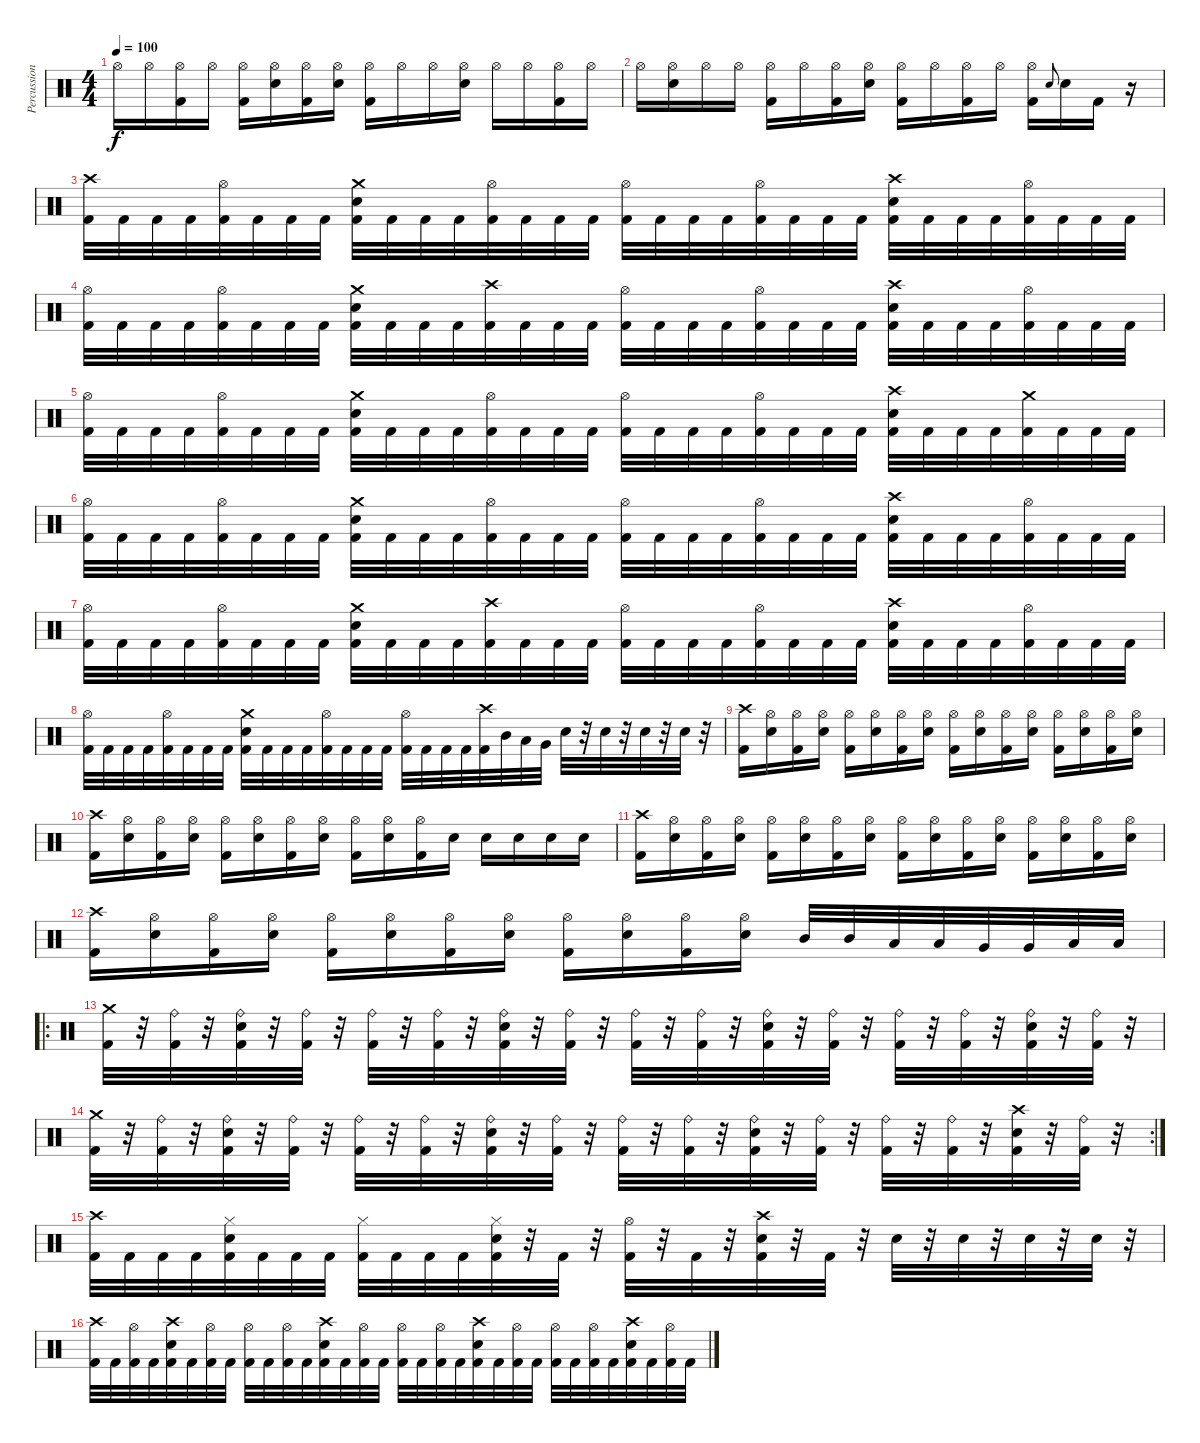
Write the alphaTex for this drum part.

\track ("Percussion" "Percussion") {instrument percussion}
\staff {score}
\articulation defaults
\ts (4 4)
\tempo 100
\clef neutral
\ks c "Hi-Hat (open)".16{dy f} "Hi-Hat (open)".16
("Hi-Hat (open)" "Kick (hit) 2").16 "Hi-Hat (open)".16 ("Hi-Hat (open)" "Kick (hit) 2").16 ("Hi-Hat (open)" "Snare (hit) 2").16 ("Hi-Hat (open)" "Kick (hit) 2").16 ("Hi-Hat (open)" "Snare (hit) 2").16 ("Hi-Hat (open)" "Kick (hit) 2").16 "Hi-Hat (open)".16 "Hi-Hat (open)".16 ("Hi-Hat (open)" "Snare (hit) 2").16 "Hi-Hat (open)".16 "Hi-Hat (open)".16 ("Hi-Hat (open)" "Kick (hit) 2").16 "Hi-Hat (open)".16 |
"Hi-Hat (open)".16 ("Hi-Hat (open)" "Snare (hit) 2").16 "Hi-Hat (open)".16 "Hi-Hat (open)".16 ("Hi-Hat (open)" "Kick (hit) 2").16 "Hi-Hat (open)".16 ("Hi-Hat (open)" "Kick (hit) 2").16 ("Hi-Hat (open)" "Snare (hit) 2").16 ("Hi-Hat (open)" "Kick (hit) 2").16 "Hi-Hat (open)".16 ("Hi-Hat (open)" "Kick (hit) 2").16 "Hi-Hat (open)".16 ("Hi-Hat (open)" "Kick (hit) 2").16 "Snare (hit) 2".8{gr onbeat} "Snare (hit) 2".16 "Kick (hit) 2".16 r.16 |
("Crash high (hit)" "Kick (hit) 2").32 "Kick (hit) 2".32 "Kick (hit) 2".32 "Kick (hit) 2".32 ("Hi-Hat (open)" "Kick (hit) 2").32 "Kick (hit) 2".32 "Kick (hit) 2".32 "Kick (hit) 2".32 ("Crash medium (hit)" "Snare (hit) 2" "Kick (hit) 2").32 "Kick (hit) 2".32 "Kick (hit) 2".32 "Kick (hit) 2".32 ("Hi-Hat (open)" "Kick (hit) 2").32 "Kick (hit) 2".32 "Kick (hit) 2".32 "Kick (hit) 2".32 ("Hi-Hat (open)" "Kick (hit) 2").32 "Kick (hit) 2".32 "Kick (hit) 2".32 "Kick (hit) 2".32 ("Hi-Hat (open)" "Kick (hit) 2").32 "Kick (hit) 2".32 "Kick (hit) 2".32 "Kick (hit) 2".32 ("Crash high (hit)" "Snare (hit) 2" "Kick (hit) 2").32 "Kick (hit) 2".32 "Kick (hit) 2".32 "Kick (hit) 2".32 ("Hi-Hat (open)" "Kick (hit) 2").32 "Kick (hit) 2".32 "Kick (hit) 2".32 "Kick (hit) 2".32 |
("Hi-Hat (open)" "Kick (hit) 2").32 "Kick (hit) 2".32 "Kick (hit) 2".32 "Kick (hit) 2".32 ("Hi-Hat (open)" "Kick (hit) 2").32 "Kick (hit) 2".32 "Kick (hit) 2".32 "Kick (hit) 2".32 ("Crash medium (hit)" "Snare (hit) 2" "Kick (hit) 2").32 "Kick (hit) 2".32 "Kick (hit) 2".32 "Kick (hit) 2".32 ("Crash high (hit)" "Kick (hit) 2").32 "Kick (hit) 2".32 "Kick (hit) 2".32 "Kick (hit) 2".32 ("Hi-Hat (open)" "Kick (hit) 2").32 "Kick (hit) 2".32 "Kick (hit) 2".32 "Kick (hit) 2".32 ("Hi-Hat (open)" "Kick (hit) 2").32 "Kick (hit) 2".32 "Kick (hit) 2".32 "Kick (hit) 2".32 ("Crash high (hit)" "Snare (hit) 2" "Kick (hit) 2").32 "Kick (hit) 2".32 "Kick (hit) 2".32 "Kick (hit) 2".32 ("Hi-Hat (open)" "Kick (hit) 2").32 "Kick (hit) 2".32 "Kick (hit) 2".32 "Kick (hit) 2".32 |
("Hi-Hat (open)" "Kick (hit) 2").32 "Kick (hit) 2".32 "Kick (hit) 2".32 "Kick (hit) 2".32 ("Hi-Hat (open)" "Kick (hit) 2").32 "Kick (hit) 2".32 "Kick (hit) 2".32 "Kick (hit) 2".32 ("Crash medium (hit)" "Snare (hit) 2" "Kick (hit) 2").32 "Kick (hit) 2".32 "Kick (hit) 2".32 "Kick (hit) 2".32 ("Hi-Hat (open)" "Kick (hit) 2").32 "Kick (hit) 2".32 "Kick (hit) 2".32 "Kick (hit) 2".32 ("Hi-Hat (open)" "Kick (hit) 2").32 "Kick (hit) 2".32 "Kick (hit) 2".32 "Kick (hit) 2".32 ("Hi-Hat (open)" "Kick (hit) 2").32 "Kick (hit) 2".32 "Kick (hit) 2".32 "Kick (hit) 2".32 ("Crash high (hit)" "Snare (hit) 2" "Kick (hit) 2").32 "Kick (hit) 2".32 "Kick (hit) 2".32 "Kick (hit) 2".32 ("Crash medium (hit)" "Kick (hit) 2").32 "Kick (hit) 2".32 "Kick (hit) 2".32 "Kick (hit) 2".32 |
("Hi-Hat (open)" "Kick (hit) 2").32 "Kick (hit) 2".32 "Kick (hit) 2".32 "Kick (hit) 2".32 ("Hi-Hat (open)" "Kick (hit) 2").32 "Kick (hit) 2".32 "Kick (hit) 2".32 "Kick (hit) 2".32 ("Crash medium (hit)" "Snare (hit) 2" "Kick (hit) 2").32 "Kick (hit) 2".32 "Kick (hit) 2".32 "Kick (hit) 2".32 ("Hi-Hat (open)" "Kick (hit) 2").32 "Kick (hit) 2".32 "Kick (hit) 2".32 "Kick (hit) 2".32 ("Hi-Hat (open)" "Kick (hit) 2").32 "Kick (hit) 2".32 "Kick (hit) 2".32 "Kick (hit) 2".32 ("Hi-Hat (open)" "Kick (hit) 2").32 "Kick (hit) 2".32 "Kick (hit) 2".32 "Kick (hit) 2".32 ("Crash high (hit)" "Snare (hit) 2" "Kick (hit) 2").32 "Kick (hit) 2".32 "Kick (hit) 2".32 "Kick (hit) 2".32 ("Hi-Hat (open)" "Kick (hit) 2").32 "Kick (hit) 2".32 "Kick (hit) 2".32 "Kick (hit) 2".32 |
("Hi-Hat (open)" "Kick (hit) 2").32 "Kick (hit) 2".32 "Kick (hit) 2".32 "Kick (hit) 2".32 ("Hi-Hat (open)" "Kick (hit) 2").32 "Kick (hit) 2".32 "Kick (hit) 2".32 "Kick (hit) 2".32 ("Crash medium (hit)" "Snare (hit) 2" "Kick (hit) 2").32 "Kick (hit) 2".32 "Kick (hit) 2".32 "Kick (hit) 2".32 ("Crash high (hit)" "Kick (hit) 2").32 "Kick (hit) 2".32 "Kick (hit) 2".32 "Kick (hit) 2".32 ("Hi-Hat (open)" "Kick (hit) 2").32 "Kick (hit) 2".32 "Kick (hit) 2".32 "Kick (hit) 2".32 ("Hi-Hat (open)" "Kick (hit) 2").32 "Kick (hit) 2".32 "Kick (hit) 2".32 "Kick (hit) 2".32 ("Crash high (hit)" "Snare (hit) 2" "Kick (hit) 2").32 "Kick (hit) 2".32 "Kick (hit) 2".32 "Kick (hit) 2".32 ("Hi-Hat (open)" "Kick (hit) 2").32 "Kick (hit) 2".32 "Kick (hit) 2".32 "Kick (hit) 2".32 |
("Hi-Hat (open)" "Kick (hit) 2").32 "Kick (hit) 2".32 "Kick (hit) 2".32 "Kick (hit) 2".32 ("Hi-Hat (open)" "Kick (hit) 2").32 "Kick (hit) 2".32 "Kick (hit) 2".32 "Kick (hit) 2".32 ("Crash medium (hit)" "Snare (hit) 2" "Kick (hit) 2").32 "Kick (hit) 2".32 "Kick (hit) 2".32 "Kick (hit) 2".32 ("Hi-Hat (open)" "Kick (hit) 2").32 "Kick (hit) 2".32 "Kick (hit) 2".32 "Kick (hit) 2".32 ("Hi-Hat (open)" "Kick (hit) 2").32 "Kick (hit) 2".32 "Kick (hit) 2".32 "Kick (hit) 2".32 ("Crash high (hit)" "Kick (hit) 2").32 "Mid Tom (hit)".32 "Low Tom (hit)".32 "Very Low Tom (hit)".32 "Snare (hit) 2".32 r.32 "Snare (hit) 2".32 r.32 "Snare (hit) 2".32 r.32 "Snare (hit) 2".32 r.32 |
("Crash high (hit)" "Kick (hit) 2").16 ("Hi-Hat (open)" "Snare (hit) 2").16 ("Hi-Hat (open)" "Kick (hit) 2").16 ("Hi-Hat (open)" "Snare (hit) 2").16 ("Hi-Hat (open)" "Kick (hit) 2").16 ("Hi-Hat (open)" "Snare (hit) 2").16 ("Hi-Hat (open)" "Kick (hit) 2").16 ("Hi-Hat (open)" "Snare (hit) 2").16 ("Hi-Hat (open)" "Kick (hit) 2").16 ("Hi-Hat (open)" "Snare (hit) 2").16 ("Hi-Hat (open)" "Kick (hit) 2").16 ("Hi-Hat (open)" "Snare (hit) 2").16 ("Hi-Hat (open)" "Kick (hit) 2").16 ("Hi-Hat (open)" "Snare (hit) 2").16 ("Hi-Hat (open)" "Kick (hit) 2").16 ("Hi-Hat (open)" "Snare (hit) 2").16 |
("Crash high (hit)" "Kick (hit) 2").16 ("Hi-Hat (open)" "Snare (hit) 2").16 ("Hi-Hat (open)" "Kick (hit) 2").16 ("Hi-Hat (open)" "Snare (hit) 2").16 ("Hi-Hat (open)" "Kick (hit) 2").16 ("Hi-Hat (open)" "Snare (hit) 2").16 ("Hi-Hat (open)" "Kick (hit) 2").16 ("Hi-Hat (open)" "Snare (hit) 2").16 ("Hi-Hat (open)" "Kick (hit) 2").16 ("Hi-Hat (open)" "Snare (hit) 2").16 ("Hi-Hat (open)" "Kick (hit) 2").16 "Snare (hit) 2".16 "Snare (hit) 2".16 "Snare (hit) 2".16 "Snare (hit) 2".16 "Snare (hit) 2".16 |
("Crash high (hit)" "Kick (hit) 2").16 ("Hi-Hat (open)" "Snare (hit) 2").16 ("Hi-Hat (open)" "Kick (hit) 2").16 ("Hi-Hat (open)" "Snare (hit) 2").16 ("Hi-Hat (open)" "Kick (hit) 2").16 ("Hi-Hat (open)" "Snare (hit) 2").16 ("Hi-Hat (open)" "Kick (hit) 2").16 ("Hi-Hat (open)" "Snare (hit) 2").16 ("Hi-Hat (open)" "Kick (hit) 2").16 ("Hi-Hat (open)" "Snare (hit) 2").16 ("Hi-Hat (open)" "Kick (hit) 2").16 ("Hi-Hat (open)" "Snare (hit) 2").16 ("Hi-Hat (open)" "Kick (hit) 2").16 ("Hi-Hat (open)" "Snare (hit) 2").16 ("Hi-Hat (open)" "Kick (hit) 2").16 ("Hi-Hat (open)" "Snare (hit) 2").16 |
("Crash high (hit)" "Kick (hit) 2").16 ("Hi-Hat (open)" "Snare (hit) 2").16 ("Hi-Hat (open)" "Kick (hit) 2").16 ("Hi-Hat (open)" "Snare (hit) 2").16 ("Hi-Hat (open)" "Kick (hit) 2").16 ("Hi-Hat (open)" "Snare (hit) 2").16 ("Hi-Hat (open)" "Kick (hit) 2").16 ("Hi-Hat (open)" "Snare (hit) 2").16 ("Hi-Hat (open)" "Kick (hit) 2").16 ("Hi-Hat (open)" "Snare (hit) 2").16 ("Hi-Hat (open)" "Kick (hit) 2").16 ("Hi-Hat (open)" "Snare (hit) 2").16 "Mid Tom (hit)".32 "Mid Tom (hit)".32 "Low Tom (hit)".32 "Low Tom (hit)".32 "Very Low Tom (hit)".32 "Very Low Tom (hit)".32 "Low Floor Tom (hit)".32 "Low Floor Tom (hit)".32 |
\ro
("Crash medium (hit)" "Kick (hit) 2").32 r.32 ("Ride (bell)" "Kick (hit) 2").32 r.32 ("Ride (bell)" "Snare (hit) 2" "Kick (hit) 2").32 r.32 ("Ride (bell)" "Kick (hit) 2").32 r.32 ("Ride (bell)" "Kick (hit) 2").32 r.32 ("Ride (bell)" "Kick (hit) 2").32 r.32 ("Ride (bell)" "Snare (hit) 2" "Kick (hit) 2").32 r.32 ("Ride (bell)" "Kick (hit) 2").32 r.32 ("Ride (bell)" "Kick (hit) 2").32 r.32 ("Ride (bell)" "Kick (hit) 2").32 r.32 ("Ride (bell)" "Snare (hit) 2" "Kick (hit) 2").32 r.32 ("Ride (bell)" "Kick (hit) 2").32 r.32 ("Ride (bell)" "Kick (hit) 2").32 r.32 ("Ride (bell)" "Kick (hit) 2").32 r.32 ("Ride (bell)" "Snare (hit) 2" "Kick (hit) 2").32 r.32 ("Ride (bell)" "Kick (hit) 2").32 r.32 |
\rc 2
("Crash medium (hit)" "Kick (hit) 2").32 r.32 ("Ride (bell)" "Kick (hit) 2").32 r.32 ("Ride (bell)" "Snare (hit) 2" "Kick (hit) 2").32 r.32 ("Ride (bell)" "Kick (hit) 2").32 r.32 ("Ride (bell)" "Kick (hit) 2").32 r.32 ("Ride (bell)" "Kick (hit) 2").32 r.32 ("Ride (bell)" "Snare (hit) 2" "Kick (hit) 2").32 r.32 ("Ride (bell)" "Kick (hit) 2").32 r.32 ("Ride (bell)" "Kick (hit) 2").32 r.32 ("Ride (bell)" "Kick (hit) 2").32 r.32 ("Ride (bell)" "Snare (hit) 2" "Kick (hit) 2").32 r.32 ("Ride (bell)" "Kick (hit) 2").32 r.32 ("Ride (bell)" "Kick (hit) 2").32 r.32 ("Ride (bell)" "Kick (hit) 2").32 r.32 ("Crash high (hit)" "Snare (hit) 2" "Kick (hit) 2").32 r.32 ("Ride (bell)" "Kick (hit) 2").32 r.32 |
("Crash high (hit)" "Kick (hit) 2").32 "Kick (hit) 2".32 "Kick (hit) 2".32 "Kick (hit) 2".32 ("Hi-Hat (closed)" "Snare (hit) 2" "Kick (hit) 2").32 "Kick (hit) 2".32 "Kick (hit) 2".32 "Kick (hit) 2".32 ("Hi-Hat (closed)" "Kick (hit) 2").32 "Kick (hit) 2".32 "Kick (hit) 2".32 "Kick (hit) 2".32 ("Hi-Hat (closed)" "Snare (hit) 2" "Kick (hit) 2").32 r.32 "Kick (hit) 2".32 r.32 ("Hi-Hat (open)" "Kick (hit) 2").32 r.32 "Kick (hit) 2".32 r.32 ("Crash high (hit)" "Snare (hit) 2" "Kick (hit) 2").32 r.32 "Kick (hit) 2".32 r.32 "Snare (hit) 2".32 r.32 "Snare (hit) 2".32 r.32 "Snare (hit) 2".32 r.32 "Snare (hit) 2".32 r.32 |
("Crash high (hit)" "Kick (hit) 2").32 "Kick (hit) 2".32 ("Hi-Hat (open)" "Kick (hit) 2").32 "Kick (hit) 2".32 ("Crash high (hit)" "Snare (hit) 2" "Kick (hit) 2").32 "Kick (hit) 2".32 ("Hi-Hat (open)" "Kick (hit) 2").32 "Kick (hit) 2".32 ("Hi-Hat (open)" "Kick (hit) 2").32 "Kick (hit) 2".32 ("Hi-Hat (open)" "Kick (hit) 2").32 "Kick (hit) 2".32 ("Crash high (hit)" "Snare (hit) 2" "Kick (hit) 2").32 "Kick (hit) 2".32 ("Hi-Hat (open)" "Kick (hit) 2").32 "Kick (hit) 2".32 ("Hi-Hat (open)" "Kick (hit) 2").32 "Kick (hit) 2".32 ("Hi-Hat (open)" "Kick (hit) 2").32 "Kick (hit) 2".32 ("Crash high (hit)" "Snare (hit) 2" "Kick (hit) 2").32 "Kick (hit) 2".32 ("Hi-Hat (open)" "Kick (hit) 2").32 "Kick (hit) 2".32 ("Hi-Hat (open)" "Kick (hit) 2").32 "Kick (hit) 2".32 ("Hi-Hat (open)" "Kick (hit) 2").32 "Kick (hit) 2".32 ("Crash high (hit)" "Snare (hit) 2" "Kick (hit) 2").32 "Kick (hit) 2".32 ("Hi-Hat (open)" "Kick (hit) 2").32 "Kick (hit) 2".32
